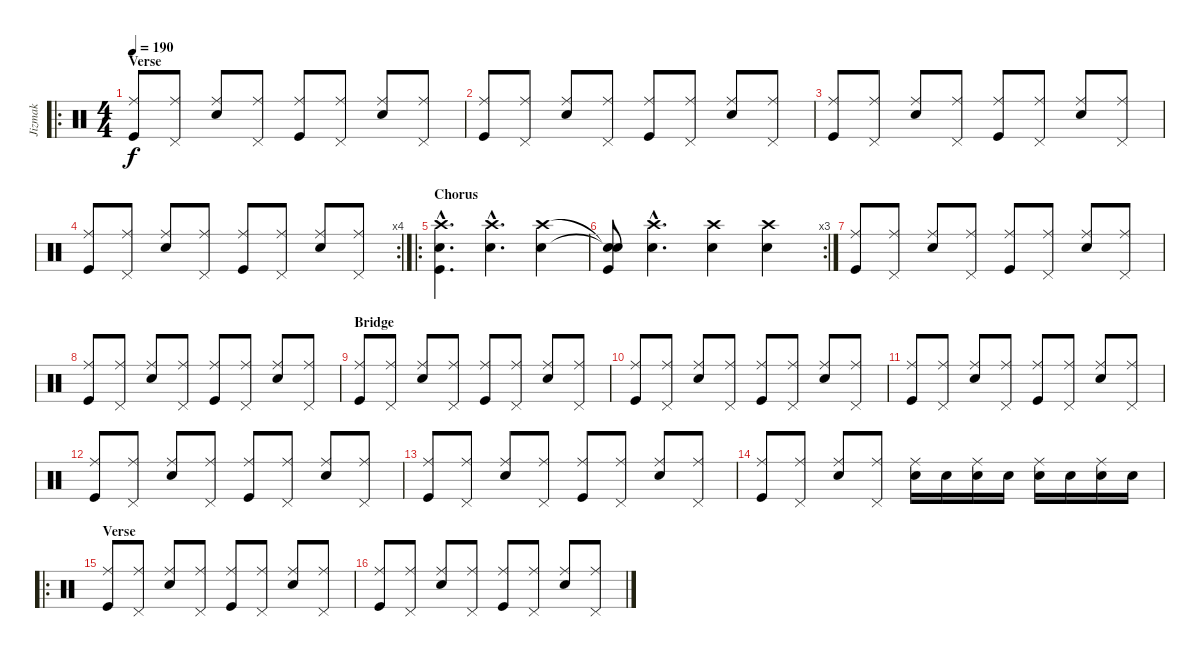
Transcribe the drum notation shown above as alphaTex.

\track ("Jizmak" "Jizmak") {instrument percussion}
\staff {score}
\articulation defaults
\ro
\ts (4 4)
\section ("" "Verse")
\tempo 190
\clef neutral
\ks c
("Ride (middle)" "Kick (hit)").8{dy f} ("Ride (middle)" "Pedal Hi-Hat (hit)").8 ("Ride (middle)" "Snare (hit) 2").8 ("Ride (middle)" "Pedal Hi-Hat (hit)").8 ("Ride (middle)" "Kick (hit)").8 ("Ride (middle)" "Pedal Hi-Hat (hit)").8 ("Ride (middle)" "Snare (hit) 2").8 ("Ride (middle)" "Pedal Hi-Hat (hit)").8 |
("Ride (middle)" "Kick (hit)").8 ("Ride (middle)" "Pedal Hi-Hat (hit)").8 ("Ride (middle)" "Snare (hit) 2").8 ("Ride (middle)" "Pedal Hi-Hat (hit)").8 ("Ride (middle)" "Kick (hit)").8 ("Ride (middle)" "Pedal Hi-Hat (hit)").8 ("Ride (middle)" "Snare (hit) 2").8 ("Ride (middle)" "Pedal Hi-Hat (hit)").8 |
("Ride (middle)" "Kick (hit)").8 ("Ride (middle)" "Pedal Hi-Hat (hit)").8 ("Ride (middle)" "Snare (hit) 2").8 ("Ride (middle)" "Pedal Hi-Hat (hit)").8 ("Ride (middle)" "Kick (hit)").8 ("Ride (middle)" "Pedal Hi-Hat (hit)").8 ("Ride (middle)" "Snare (hit) 2").8 ("Ride (middle)" "Pedal Hi-Hat (hit)").8 |
\rc 4
("Ride (middle)" "Kick (hit)").8 ("Ride (middle)" "Pedal Hi-Hat (hit)").8 ("Ride (middle)" "Snare (hit) 2").8 ("Ride (middle)" "Pedal Hi-Hat (hit)").8 ("Ride (middle)" "Kick (hit)").8 ("Ride (middle)" "Pedal Hi-Hat (hit)").8 ("Ride (middle)" "Snare (hit) 2").8 ("Ride (middle)" "Pedal Hi-Hat (hit)").8 |
\ro
\section ("" "Chorus")
("Crash high (hit)"{hac} "Snare (hit) 2"{hac} "Kick (hit)"{hac}).4{d} ("Crash high (hit)"{hac} "Snare (hit) 2"{hac}).4{d} ("Crash high (hit)" "Snare (hit) 2").4 |
\rc 3
("Snare (hit)"{t} "Snare (hit) 2"{t} "Kick (hit)").8 ("Crash high (hit)"{hac} "Snare (hit) 2"{hac}).4{d} ("Crash high (hit)" "Snare (hit) 2").4 ("Crash high (hit)" "Snare (hit) 2").4 |
("Ride (middle)" "Kick (hit)").8 ("Ride (middle)" "Pedal Hi-Hat (hit)").8 ("Ride (middle)" "Snare (hit) 2").8 ("Ride (middle)" "Pedal Hi-Hat (hit)").8 ("Ride (middle)" "Kick (hit)").8 ("Ride (middle)" "Pedal Hi-Hat (hit)").8 ("Ride (middle)" "Snare (hit) 2").8 ("Ride (middle)" "Pedal Hi-Hat (hit)").8 |
("Ride (middle)" "Kick (hit)").8 ("Ride (middle)" "Pedal Hi-Hat (hit)").8 ("Ride (middle)" "Snare (hit) 2").8 ("Ride (middle)" "Pedal Hi-Hat (hit)").8 ("Ride (middle)" "Kick (hit)").8 ("Ride (middle)" "Pedal Hi-Hat (hit)").8 ("Ride (middle)" "Snare (hit) 2").8 ("Ride (middle)" "Pedal Hi-Hat (hit)").8 |
\section ("" "Bridge")
("Ride (middle)" "Kick (hit)").8 ("Ride (middle)" "Pedal Hi-Hat (hit)").8 ("Ride (middle)" "Snare (hit) 2").8 ("Ride (middle)" "Pedal Hi-Hat (hit)").8 ("Ride (middle)" "Kick (hit)").8 ("Ride (middle)" "Pedal Hi-Hat (hit)").8 ("Ride (middle)" "Snare (hit) 2").8 ("Ride (middle)" "Pedal Hi-Hat (hit)").8 |
("Ride (middle)" "Kick (hit)").8 ("Ride (middle)" "Pedal Hi-Hat (hit)").8 ("Ride (middle)" "Snare (hit) 2").8 ("Ride (middle)" "Pedal Hi-Hat (hit)").8 ("Ride (middle)" "Kick (hit)").8 ("Ride (middle)" "Pedal Hi-Hat (hit)").8 ("Ride (middle)" "Snare (hit) 2").8 ("Ride (middle)" "Pedal Hi-Hat (hit)").8 |
("Ride (middle)" "Kick (hit)").8 ("Ride (middle)" "Pedal Hi-Hat (hit)").8 ("Ride (middle)" "Snare (hit) 2").8 ("Ride (middle)" "Pedal Hi-Hat (hit)").8 ("Ride (middle)" "Kick (hit)").8 ("Ride (middle)" "Pedal Hi-Hat (hit)").8 ("Ride (middle)" "Snare (hit) 2").8 ("Ride (middle)" "Pedal Hi-Hat (hit)").8 |
("Ride (middle)" "Kick (hit)").8 ("Ride (middle)" "Pedal Hi-Hat (hit)").8 ("Ride (middle)" "Snare (hit) 2").8 ("Ride (middle)" "Pedal Hi-Hat (hit)").8 ("Ride (middle)" "Kick (hit)").8 ("Ride (middle)" "Pedal Hi-Hat (hit)").8 ("Ride (middle)" "Snare (hit) 2").8 ("Ride (middle)" "Pedal Hi-Hat (hit)").8 |
("Ride (middle)" "Kick (hit)").8 ("Ride (middle)" "Pedal Hi-Hat (hit)").8 ("Ride (middle)" "Snare (hit) 2").8 ("Ride (middle)" "Pedal Hi-Hat (hit)").8 ("Ride (middle)" "Kick (hit)").8 ("Ride (middle)" "Pedal Hi-Hat (hit)").8 ("Ride (middle)" "Snare (hit) 2").8 ("Ride (middle)" "Pedal Hi-Hat (hit)").8 |
("Ride (middle)" "Kick (hit)").8 ("Ride (middle)" "Pedal Hi-Hat (hit)").8 ("Ride (middle)" "Snare (hit) 2").8 ("Ride (middle)" "Pedal Hi-Hat (hit)").8 ("Ride (middle)" "Snare (hit) 2").16 "Snare (hit) 2".16 ("Ride (middle)" "Snare (hit) 2").16 "Snare (hit) 2".16 ("Ride (middle)" "Snare (hit) 2").16 "Snare (hit) 2".16 ("Ride (middle)" "Snare (hit) 2").16 "Snare (hit) 2".16 |
\ro
\section ("" "Verse")
("Ride (middle)" "Kick (hit)").8 ("Ride (middle)" "Pedal Hi-Hat (hit)").8 ("Ride (middle)" "Snare (hit) 2").8 ("Ride (middle)" "Pedal Hi-Hat (hit)").8 ("Ride (middle)" "Kick (hit)").8 ("Ride (middle)" "Pedal Hi-Hat (hit)").8 ("Ride (middle)" "Snare (hit) 2").8 ("Ride (middle)" "Pedal Hi-Hat (hit)").8 |
("Ride (middle)" "Kick (hit)").8 ("Ride (middle)" "Pedal Hi-Hat (hit)").8 ("Ride (middle)" "Snare (hit) 2").8 ("Ride (middle)" "Pedal Hi-Hat (hit)").8 ("Ride (middle)" "Kick (hit)").8 ("Ride (middle)" "Pedal Hi-Hat (hit)").8 ("Ride (middle)" "Snare (hit) 2").8 ("Ride (middle)" "Pedal Hi-Hat (hit)").8
